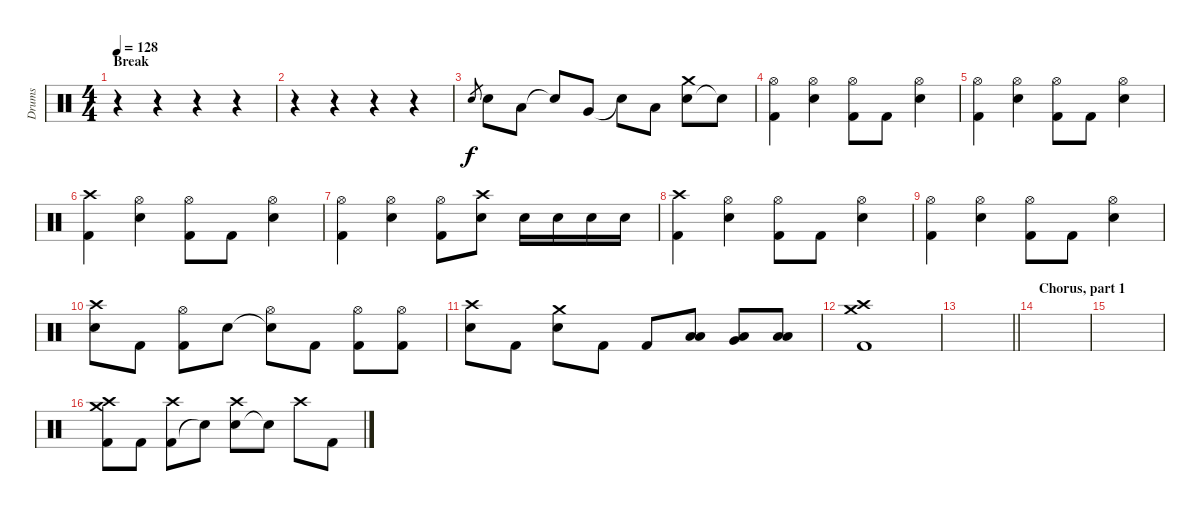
\track ("Drums" "Drums") {instrument percussion}
\staff {score}
\articulation defaults
\ts (4 4)
\section ("" "Break")
\tempo 128
\clef neutral
\ks c
r.4{dy f} r.4 r.4 r.4 |
r.4 r.4 r.4 r.4 |
"Electric Snare (hit)".8{gr} "Electric Snare (hit)".8 "Low Tom (hit)".8 "Snare (hit)"{t}.8 "Very Low Tom (hit)".8 "Snare (hit)"{t}.8 "Low Floor Tom (hit)".8 ("Electric Snare (hit)" "Crash medium (hit)").8 "Snare (hit)"{t}.8 |
("Kick (hit) 2" "Hi-Hat (open)").4 ("Electric Snare (hit)" "Hi-Hat (open)").4 ("Kick (hit) 2" "Hi-Hat (open)").8 "Kick (hit) 2".8 ("Electric Snare (hit)" "Hi-Hat (open)").4 |
("Kick (hit) 2" "Hi-Hat (open)").4 ("Electric Snare (hit)" "Hi-Hat (open)").4 ("Kick (hit) 2" "Hi-Hat (open)").8 "Kick (hit) 2".8 ("Electric Snare (hit)" "Hi-Hat (open)").4 |
("Kick (hit) 2" "Crash high (hit)").4 ("Electric Snare (hit)" "Hi-Hat (open)").4 ("Kick (hit) 2" "Hi-Hat (open)").8 "Kick (hit) 2".8 ("Electric Snare (hit)" "Hi-Hat (open)").4 |
("Kick (hit) 2" "Hi-Hat (open)").4 ("Electric Snare (hit)" "Hi-Hat (open)").4 ("Kick (hit) 2" "Hi-Hat (open)").8 ("Electric Snare (hit)" "Crash high (hit)").8 "Electric Snare (hit)".16 "Electric Snare (hit)".16 "Electric Snare (hit)".16 "Electric Snare (hit)".16 |
("Kick (hit) 2" "Crash high (hit)").4 ("Electric Snare (hit)" "Hi-Hat (open)").4 ("Kick (hit) 2" "Hi-Hat (open)").8 "Kick (hit) 2".8 ("Electric Snare (hit)" "Hi-Hat (open)").4 |
("Kick (hit) 2" "Hi-Hat (open)").4 ("Electric Snare (hit)" "Hi-Hat (open)").4 ("Kick (hit) 2" "Hi-Hat (open)").8 "Kick (hit) 2".8 ("Electric Snare (hit)" "Hi-Hat (open)").4 |
("Electric Snare (hit)" "Crash high (hit)").8 "Kick (hit) 2".8 ("Kick (hit) 2" "Hi-Hat (open)").8 "Electric Snare (hit)".8 ("Snare (hit)"{t} "Hi-Hat (open)").8 "Kick (hit) 2".8 ("Kick (hit) 2" "Hi-Hat (open)").8 ("Kick (hit) 2" "Hi-Hat (open)").8 |
("Electric Snare (hit)" "Crash high (hit)").8 "Kick (hit) 2".8 ("Electric Snare (hit)" "Crash medium (hit)").8 "Kick (hit) 2".8 "Kick (hit) 2".8 ("Low Tom (hit)" "Low Floor Tom (hit)").8 ("Very Low Tom (hit)" "Low Floor Tom (hit)").8 ("Low Floor Tom (hit)" "Low Floor Tom (hit)").8 |
("Kick (hit) 2" "Crash medium (hit)" "Crash high (hit)").1 |
\barLineRight lightlight
|
\section ("" "Chorus, part 1")
|
|
("Kick (hit) 2" "Crash medium (hit)" "Crash high (hit)").8 "Kick (hit) 2".8 ("Kick (hit) 2" "Crash high (hit)").8 "Electric Snare (hit)"{t}.8 ("Electric Snare (hit)" "Crash high (hit)").8 "Snare (hit)"{t}.8 "Crash high (hit)".8 "Kick (hit) 2".8
